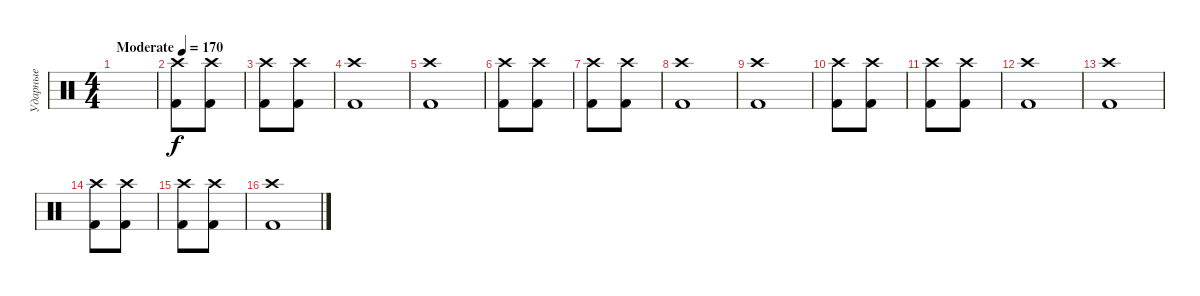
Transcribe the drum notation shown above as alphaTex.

\track ("Ударные" "Ударные") {instrument percussion}
\staff {score}
\articulation defaults
\ts (4 4)
\tempo (170 "Moderate")
\clef neutral
\ks c
|
("Kick (hit) 2" "Crash high (hit)").8 ("Kick (hit) 2" "Crash high (hit)").8 |
("Kick (hit) 2" "Crash high (hit)").8 ("Kick (hit) 2" "Crash high (hit)").8 |
("Kick (hit) 2" "Crash high (hit)").1 |
("Kick (hit) 2" "Crash high (hit)").1 |
("Kick (hit) 2" "Crash high (hit)").8 ("Kick (hit) 2" "Crash high (hit)").8 |
("Kick (hit) 2" "Crash high (hit)").8 ("Kick (hit) 2" "Crash high (hit)").8 |
("Kick (hit) 2" "Crash high (hit)").1 |
("Kick (hit) 2" "Crash high (hit)").1 |
("Kick (hit) 2" "Crash high (hit)").8 ("Kick (hit) 2" "Crash high (hit)").8 |
("Kick (hit) 2" "Crash high (hit)").8 ("Kick (hit) 2" "Crash high (hit)").8 |
("Kick (hit) 2" "Crash high (hit)").1 |
("Kick (hit) 2" "Crash high (hit)").1 |
("Kick (hit) 2" "Crash high (hit)").8 ("Kick (hit) 2" "Crash high (hit)").8 |
("Kick (hit) 2" "Crash high (hit)").8 ("Kick (hit) 2" "Crash high (hit)").8 |
("Kick (hit) 2" "Crash high (hit)").1
